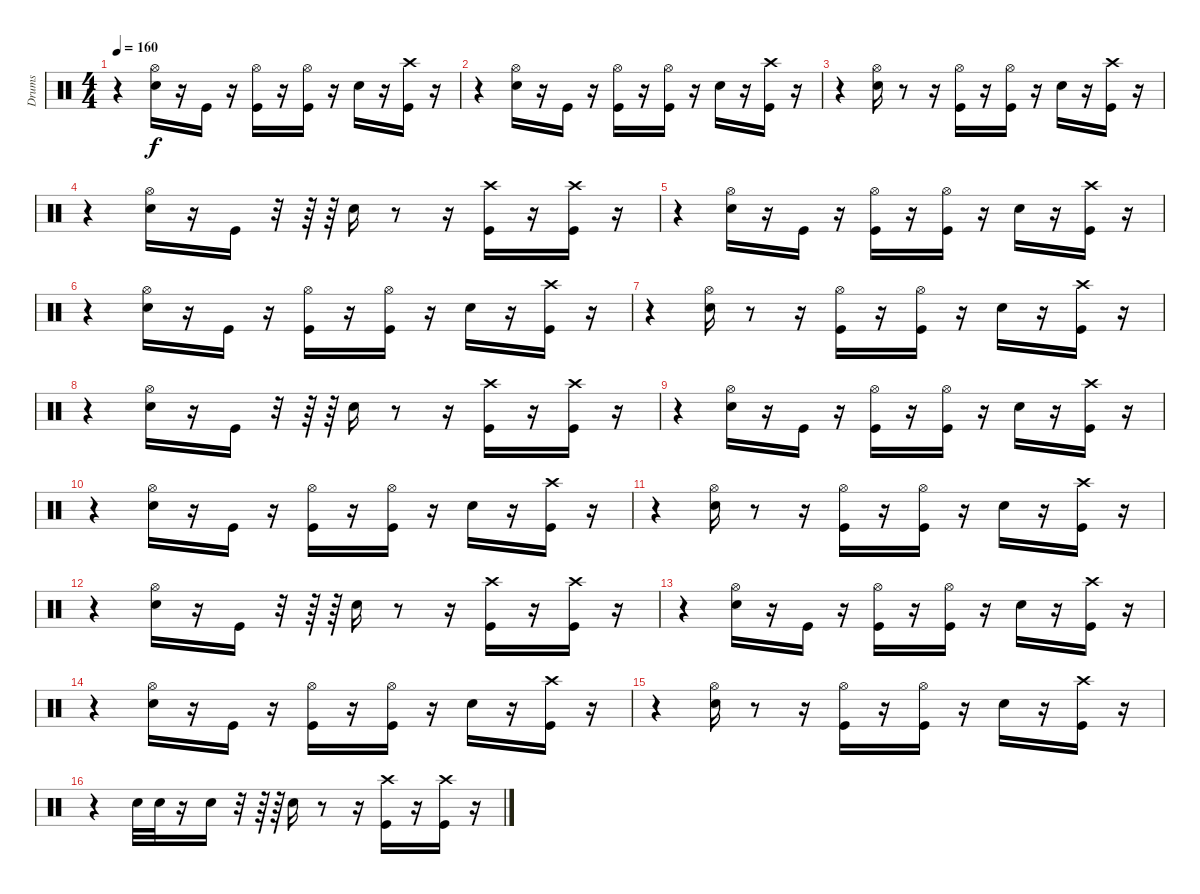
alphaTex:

\track ("Drums" "Drums") {instrument percussion}
\staff {score}
\articulation defaults
\ts (4 4)
\tempo 160
\clef neutral
\ks c
r.4{dy f} ("Snare (hit) 2" "Hi-Hat (open)").16 r.16 "Kick (hit)".16 r.16 ("Hi-Hat (open)" "Kick (hit)").16 r.16 ("Kick (hit)" "Hi-Hat (open)").16 r.16 "Snare (hit) 2".16 r.16 ("Kick (hit)" "Crash high (hit)").16 r.16 |
r.4 ("Snare (hit) 2" "Hi-Hat (open)").16 r.16 "Kick (hit)".16 r.16 ("Hi-Hat (open)" "Kick (hit)").16 r.16 ("Kick (hit)" "Hi-Hat (open)").16 r.16 "Snare (hit) 2".16 r.16 ("Kick (hit)" "Crash high (hit)").16 r.16 |
r.4 ("Snare (hit) 2" "Hi-Hat (open)").16 r.8 r.16 ("Hi-Hat (open)" "Kick (hit)").16 r.16 ("Hi-Hat (open)" "Kick (hit)").16 r.16 "Snare (hit) 2".16 r.16 ("Kick (hit)" "Crash high (hit)").16 r.16 |
r.4 ("Hi-Hat (open)" "Snare (hit) 2").16 r.16 "Kick (hit)".16 r.32 r.64 r.64 "Snare (hit) 2".16 r.8 r.16 ("Kick (hit)" "Crash high (hit)").16 r.16 ("Kick (hit)" "Crash high (hit)").16 r.16 |
r.4 ("Snare (hit) 2" "Hi-Hat (open)").16 r.16 "Kick (hit)".16 r.16 ("Hi-Hat (open)" "Kick (hit)").16 r.16 ("Kick (hit)" "Hi-Hat (open)").16 r.16 "Snare (hit) 2".16 r.16 ("Kick (hit)" "Crash high (hit)").16 r.16 |
r.4 ("Snare (hit) 2" "Hi-Hat (open)").16 r.16 "Kick (hit)".16 r.16 ("Hi-Hat (open)" "Kick (hit)").16 r.16 ("Kick (hit)" "Hi-Hat (open)").16 r.16 "Snare (hit) 2".16 r.16 ("Kick (hit)" "Crash high (hit)").16 r.16 |
r.4 ("Snare (hit) 2" "Hi-Hat (open)").16 r.8 r.16 ("Hi-Hat (open)" "Kick (hit)").16 r.16 ("Hi-Hat (open)" "Kick (hit)").16 r.16 "Snare (hit) 2".16 r.16 ("Kick (hit)" "Crash high (hit)").16 r.16 |
r.4 ("Hi-Hat (open)" "Snare (hit) 2").16 r.16 "Kick (hit)".16 r.32 r.64 r.64 "Snare (hit) 2".16 r.8 r.16 ("Kick (hit)" "Crash high (hit)").16 r.16 ("Kick (hit)" "Crash high (hit)").16 r.16 |
r.4 ("Snare (hit) 2" "Hi-Hat (open)").16 r.16 "Kick (hit)".16 r.16 ("Hi-Hat (open)" "Kick (hit)").16 r.16 ("Kick (hit)" "Hi-Hat (open)").16 r.16 "Snare (hit) 2".16 r.16 ("Kick (hit)" "Crash high (hit)").16 r.16 |
r.4 ("Snare (hit) 2" "Hi-Hat (open)").16 r.16 "Kick (hit)".16 r.16 ("Hi-Hat (open)" "Kick (hit)").16 r.16 ("Kick (hit)" "Hi-Hat (open)").16 r.16 "Snare (hit) 2".16 r.16 ("Kick (hit)" "Crash high (hit)").16 r.16 |
r.4 ("Snare (hit) 2" "Hi-Hat (open)").16 r.8 r.16 ("Hi-Hat (open)" "Kick (hit)").16 r.16 ("Hi-Hat (open)" "Kick (hit)").16 r.16 "Snare (hit) 2".16 r.16 ("Kick (hit)" "Crash high (hit)").16 r.16 |
r.4 ("Hi-Hat (open)" "Snare (hit) 2").16 r.16 "Kick (hit)".16 r.32 r.64 r.64 "Snare (hit) 2".16 r.8 r.16 ("Kick (hit)" "Crash high (hit)").16 r.16 ("Kick (hit)" "Crash high (hit)").16 r.16 |
r.4 ("Snare (hit) 2" "Hi-Hat (open)").16 r.16 "Kick (hit)".16 r.16 ("Hi-Hat (open)" "Kick (hit)").16 r.16 ("Kick (hit)" "Hi-Hat (open)").16 r.16 "Snare (hit) 2".16 r.16 ("Kick (hit)" "Crash high (hit)").16 r.16 |
r.4 ("Snare (hit) 2" "Hi-Hat (open)").16 r.16 "Kick (hit)".16 r.16 ("Hi-Hat (open)" "Kick (hit)").16 r.16 ("Kick (hit)" "Hi-Hat (open)").16 r.16 "Snare (hit) 2".16 r.16 ("Kick (hit)" "Crash high (hit)").16 r.16 |
r.4 ("Snare (hit) 2" "Hi-Hat (open)").16 r.8 r.16 ("Hi-Hat (open)" "Kick (hit)").16 r.16 ("Hi-Hat (open)" "Kick (hit)").16 r.16 "Snare (hit) 2".16 r.16 ("Kick (hit)" "Crash high (hit)").16 r.16 |
r.4 "Snare (hit) 2".32 "Snare (hit) 2".32 r.16 "Snare (hit) 2".16 r.32 r.64 r.64 "Snare (hit) 2".16 r.8 r.16 ("Kick (hit)" "Crash high (hit)").16 r.16 ("Kick (hit)" "Crash high (hit)").16 r.16
